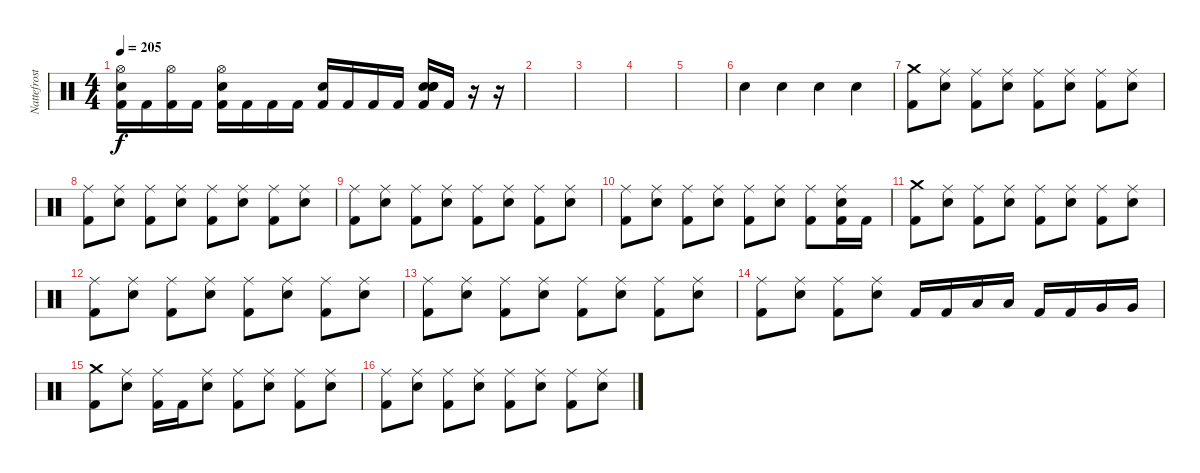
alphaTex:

\track ("Nattefrost" "Nattefrost") {instrument percussion}
\staff {score}
\articulation defaults
\ts (4 4)
\tempo 205
\clef neutral
\ks c
("Hi-Hat (open)" "Snare (hit) 2" "Kick (hit) 2").16{dy f} "Kick (hit) 2".16 ("Hi-Hat (open)" "Kick (hit) 2").16 "Kick (hit) 2".16 ("Hi-Hat (open)" "Snare (hit) 2" "Kick (hit) 2").16 "Kick (hit) 2".16 "Kick (hit) 2".16 "Kick (hit) 2".16 ("Snare (hit) 2" "Kick (hit) 2").16 "Kick (hit) 2".16 "Kick (hit) 2".16 "Kick (hit) 2".16 ("Snare (hit) 2" "Snare (hit) 2" "Snare (hit) 2" "Kick (hit) 2").16 "Kick (hit) 2".16 r.16 r.16 |
|
|
|
|
"Snare (hit) 2".4 "Snare (hit) 2".4 "Snare (hit) 2".4 "Snare (hit) 2".4 |
("Crash medium (hit)" "Kick (hit) 2").8 ("Ride (middle)" "Snare (hit) 2").8 ("Ride (middle)" "Kick (hit) 2").8 ("Ride (middle)" "Snare (hit) 2").8 ("Ride (middle)" "Kick (hit) 2").8 ("Ride (middle)" "Snare (hit) 2").8 ("Ride (middle)" "Kick (hit) 2").8 ("Ride (middle)" "Snare (hit) 2").8 |
("Ride (middle)" "Kick (hit) 2").8 ("Ride (middle)" "Snare (hit) 2").8 ("Ride (middle)" "Kick (hit) 2").8 ("Ride (middle)" "Snare (hit) 2").8 ("Ride (middle)" "Kick (hit) 2").8 ("Ride (middle)" "Snare (hit) 2").8 ("Ride (middle)" "Kick (hit) 2").8 ("Ride (middle)" "Snare (hit) 2").8 |
("Ride (middle)" "Kick (hit) 2").8 ("Ride (middle)" "Snare (hit) 2").8 ("Ride (middle)" "Kick (hit) 2").8 ("Ride (middle)" "Snare (hit) 2").8 ("Ride (middle)" "Kick (hit) 2").8 ("Ride (middle)" "Snare (hit) 2").8 ("Ride (middle)" "Kick (hit) 2").8 ("Ride (middle)" "Snare (hit) 2").8 |
("Ride (middle)" "Kick (hit) 2").8 ("Ride (middle)" "Snare (hit) 2").8 ("Ride (middle)" "Kick (hit) 2").8 ("Ride (middle)" "Snare (hit) 2").8 ("Ride (middle)" "Kick (hit) 2").8 ("Ride (middle)" "Snare (hit) 2").8 ("Ride (middle)" "Kick (hit) 2").8 ("Ride (middle)" "Snare (hit) 2" "Kick (hit) 2").16 "Kick (hit) 2".16 |
("Crash medium (hit)" "Kick (hit) 2").8 ("Ride (middle)" "Snare (hit) 2").8 ("Ride (middle)" "Kick (hit) 2").8 ("Ride (middle)" "Snare (hit) 2").8 ("Ride (middle)" "Kick (hit) 2").8 ("Ride (middle)" "Snare (hit) 2").8 ("Ride (middle)" "Kick (hit) 2").8 ("Ride (middle)" "Snare (hit) 2").8 |
("Ride (middle)" "Kick (hit) 2").8 ("Ride (middle)" "Snare (hit) 2").8 ("Ride (middle)" "Kick (hit) 2").8 ("Ride (middle)" "Snare (hit) 2").8 ("Ride (middle)" "Kick (hit) 2").8 ("Ride (middle)" "Snare (hit) 2").8 ("Ride (middle)" "Kick (hit) 2").8 ("Ride (middle)" "Snare (hit) 2").8 |
("Ride (middle)" "Kick (hit) 2").8 ("Ride (middle)" "Snare (hit) 2").8 ("Ride (middle)" "Kick (hit) 2").8 ("Ride (middle)" "Snare (hit) 2").8 ("Ride (middle)" "Kick (hit) 2").8 ("Ride (middle)" "Snare (hit) 2").8 ("Ride (middle)" "Kick (hit) 2").8 ("Ride (middle)" "Snare (hit) 2").8 |
("Ride (middle)" "Kick (hit) 2").8 ("Ride (middle)" "Snare (hit) 2").8 ("Ride (middle)" "Kick (hit) 2").8 ("Ride (middle)" "Snare (hit) 2").8 "Kick (hit) 2".16 "Kick (hit) 2".16 "Low Tom (hit)".16 "Low Tom (hit)".16 "Kick (hit) 2".16 "Kick (hit) 2".16 "Very Low Tom (hit)".16 "Very Low Tom (hit)".16 |
("Crash medium (hit)" "Kick (hit) 2").8 ("Ride (middle)" "Snare (hit) 2").8 ("Ride (middle)" "Kick (hit) 2").16 "Kick (hit) 2".16 ("Ride (middle)" "Snare (hit) 2").8 ("Ride (middle)" "Kick (hit) 2").8 ("Ride (middle)" "Snare (hit) 2").8 ("Ride (middle)" "Kick (hit) 2").8 ("Ride (middle)" "Snare (hit) 2").8 |
("Ride (middle)" "Kick (hit) 2").8 ("Ride (middle)" "Snare (hit) 2").8 ("Ride (middle)" "Kick (hit) 2").8 ("Ride (middle)" "Snare (hit) 2").8 ("Ride (middle)" "Kick (hit) 2").8 ("Ride (middle)" "Snare (hit) 2").8 ("Ride (middle)" "Kick (hit) 2").8 ("Ride (middle)" "Snare (hit) 2").8
